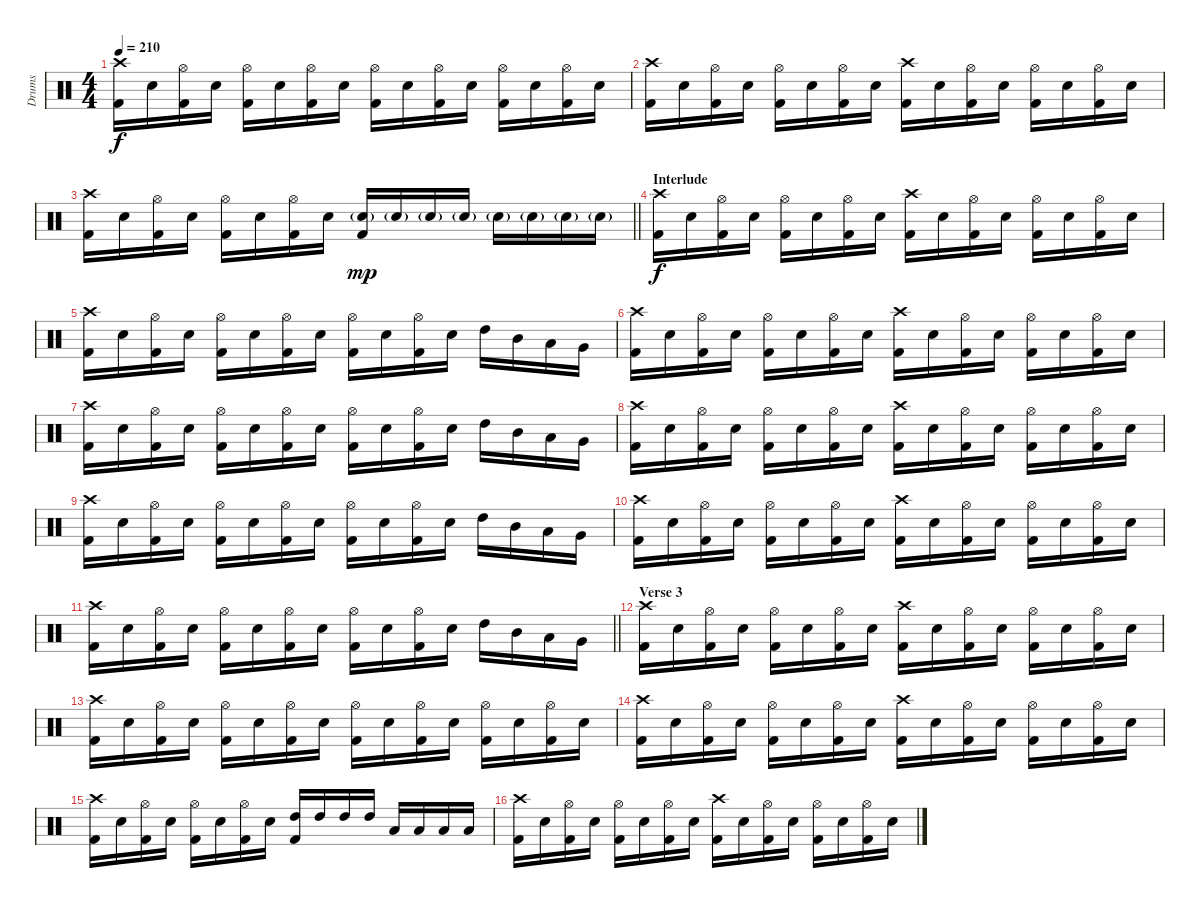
\track ("Drums" "Drums") {instrument percussion}
\staff {score}
\articulation defaults
\ts (4 4)
\tempo 210
\clef neutral
\ks c
("Crash high (hit)" "Kick (hit) 2").16{dy f} "Electric Snare (hit)".16 ("Hi-Hat (open)" "Kick (hit) 2").16 "Electric Snare (hit)".16 ("Hi-Hat (open)" "Kick (hit) 2").16 "Electric Snare (hit)".16 ("Hi-Hat (open)" "Kick (hit) 2").16 "Electric Snare (hit)".16 ("Hi-Hat (open)" "Kick (hit) 2").16 "Electric Snare (hit)".16 ("Hi-Hat (open)" "Kick (hit) 2").16 "Electric Snare (hit)".16 ("Hi-Hat (open)" "Kick (hit) 2").16 "Electric Snare (hit)".16 ("Hi-Hat (open)" "Kick (hit) 2").16 "Electric Snare (hit)".16 |
("Crash high (hit)" "Kick (hit) 2").16 "Electric Snare (hit)".16 ("Hi-Hat (open)" "Kick (hit) 2").16 "Electric Snare (hit)".16 ("Hi-Hat (open)" "Kick (hit) 2").16 "Electric Snare (hit)".16 ("Hi-Hat (open)" "Kick (hit) 2").16 "Electric Snare (hit)".16 ("Crash high (hit)" "Kick (hit) 2").16 "Electric Snare (hit)".16 ("Hi-Hat (open)" "Kick (hit) 2").16 "Electric Snare (hit)".16 ("Hi-Hat (open)" "Kick (hit) 2").16 "Electric Snare (hit)".16 ("Hi-Hat (open)" "Kick (hit) 2").16 "Electric Snare (hit)".16 |
\barLineRight lightlight
("Crash high (hit)" "Kick (hit) 2").16 "Electric Snare (hit)".16 ("Hi-Hat (open)" "Kick (hit) 2").16 "Electric Snare (hit)".16 ("Hi-Hat (open)" "Kick (hit) 2").16 "Electric Snare (hit)".16 ("Hi-Hat (open)" "Kick (hit) 2").16 "Electric Snare (hit)".16 ("Electric Snare (hit)"{g} "Kick (hit) 2").16{dy mp} "Electric Snare (hit)"{g}.16 "Electric Snare (hit)"{g}.16 "Electric Snare (hit)"{g}.16 "Electric Snare (hit)"{g}.16 "Electric Snare (hit)"{g}.16 "Electric Snare (hit)"{g}.16 "Electric Snare (hit)"{g}.16 |
\section ("" "Interlude")
("Crash high (hit)" "Kick (hit) 2").16{dy f} "Electric Snare (hit)".16 ("Hi-Hat (open)" "Kick (hit) 2").16 "Electric Snare (hit)".16 ("Hi-Hat (open)" "Kick (hit) 2").16 "Electric Snare (hit)".16 ("Hi-Hat (open)" "Kick (hit) 2").16 "Electric Snare (hit)".16 ("Crash high (hit)" "Kick (hit) 2").16 "Electric Snare (hit)".16 ("Hi-Hat (open)" "Kick (hit) 2").16 "Electric Snare (hit)".16 ("Hi-Hat (open)" "Kick (hit) 2").16 "Electric Snare (hit)".16 ("Hi-Hat (open)" "Kick (hit) 2").16 "Electric Snare (hit)".16 |
("Crash high (hit)" "Kick (hit) 2").16 "Electric Snare (hit)".16 ("Hi-Hat (open)" "Kick (hit) 2").16 "Electric Snare (hit)".16 ("Hi-Hat (open)" "Kick (hit) 2").16 "Electric Snare (hit)".16 ("Hi-Hat (open)" "Kick (hit) 2").16 "Electric Snare (hit)".16 ("Hi-Hat (open)" "Kick (hit) 2").16 "Electric Snare (hit)".16 ("Hi-Hat (open)" "Kick (hit) 2").16 "Electric Snare (hit)".16 "High Tom (hit)".16 "Mid Tom (hit)".16 "Low Tom (hit)".16 "Very Low Tom (hit)".16 |
("Crash high (hit)" "Kick (hit) 2").16 "Electric Snare (hit)".16 ("Hi-Hat (open)" "Kick (hit) 2").16 "Electric Snare (hit)".16 ("Hi-Hat (open)" "Kick (hit) 2").16 "Electric Snare (hit)".16 ("Hi-Hat (open)" "Kick (hit) 2").16 "Electric Snare (hit)".16 ("Crash high (hit)" "Kick (hit) 2").16 "Electric Snare (hit)".16 ("Hi-Hat (open)" "Kick (hit) 2").16 "Electric Snare (hit)".16 ("Hi-Hat (open)" "Kick (hit) 2").16 "Electric Snare (hit)".16 ("Hi-Hat (open)" "Kick (hit) 2").16 "Electric Snare (hit)".16 |
("Crash high (hit)" "Kick (hit) 2").16 "Electric Snare (hit)".16 ("Hi-Hat (open)" "Kick (hit) 2").16 "Electric Snare (hit)".16 ("Hi-Hat (open)" "Kick (hit) 2").16 "Electric Snare (hit)".16 ("Hi-Hat (open)" "Kick (hit) 2").16 "Electric Snare (hit)".16 ("Hi-Hat (open)" "Kick (hit) 2").16 "Electric Snare (hit)".16 ("Hi-Hat (open)" "Kick (hit) 2").16 "Electric Snare (hit)".16 "High Tom (hit)".16 "Mid Tom (hit)".16 "Low Tom (hit)".16 "Very Low Tom (hit)".16 |
("Crash high (hit)" "Kick (hit) 2").16 "Electric Snare (hit)".16 ("Hi-Hat (open)" "Kick (hit) 2").16 "Electric Snare (hit)".16 ("Hi-Hat (open)" "Kick (hit) 2").16 "Electric Snare (hit)".16 ("Hi-Hat (open)" "Kick (hit) 2").16 "Electric Snare (hit)".16 ("Crash high (hit)" "Kick (hit) 2").16 "Electric Snare (hit)".16 ("Hi-Hat (open)" "Kick (hit) 2").16 "Electric Snare (hit)".16 ("Hi-Hat (open)" "Kick (hit) 2").16 "Electric Snare (hit)".16 ("Hi-Hat (open)" "Kick (hit) 2").16 "Electric Snare (hit)".16 |
("Crash high (hit)" "Kick (hit) 2").16 "Electric Snare (hit)".16 ("Hi-Hat (open)" "Kick (hit) 2").16 "Electric Snare (hit)".16 ("Hi-Hat (open)" "Kick (hit) 2").16 "Electric Snare (hit)".16 ("Hi-Hat (open)" "Kick (hit) 2").16 "Electric Snare (hit)".16 ("Hi-Hat (open)" "Kick (hit) 2").16 "Electric Snare (hit)".16 ("Hi-Hat (open)" "Kick (hit) 2").16 "Electric Snare (hit)".16 "High Tom (hit)".16 "Mid Tom (hit)".16 "Low Tom (hit)".16 "Very Low Tom (hit)".16 |
("Crash high (hit)" "Kick (hit) 2").16 "Electric Snare (hit)".16 ("Hi-Hat (open)" "Kick (hit) 2").16 "Electric Snare (hit)".16 ("Hi-Hat (open)" "Kick (hit) 2").16 "Electric Snare (hit)".16 ("Hi-Hat (open)" "Kick (hit) 2").16 "Electric Snare (hit)".16 ("Crash high (hit)" "Kick (hit) 2").16 "Electric Snare (hit)".16 ("Hi-Hat (open)" "Kick (hit) 2").16 "Electric Snare (hit)".16 ("Hi-Hat (open)" "Kick (hit) 2").16 "Electric Snare (hit)".16 ("Hi-Hat (open)" "Kick (hit) 2").16 "Electric Snare (hit)".16 |
\barLineRight lightlight
("Crash high (hit)" "Kick (hit) 2").16 "Electric Snare (hit)".16 ("Hi-Hat (open)" "Kick (hit) 2").16 "Electric Snare (hit)".16 ("Hi-Hat (open)" "Kick (hit) 2").16 "Electric Snare (hit)".16 ("Hi-Hat (open)" "Kick (hit) 2").16 "Electric Snare (hit)".16 ("Hi-Hat (open)" "Kick (hit) 2").16 "Electric Snare (hit)".16 ("Hi-Hat (open)" "Kick (hit) 2").16 "Electric Snare (hit)".16 "High Tom (hit)".16 "Mid Tom (hit)".16 "Low Tom (hit)".16 "Very Low Tom (hit)".16 |
\section ("" "Verse 3")
("Crash high (hit)" "Kick (hit) 2").16 "Electric Snare (hit)".16 ("Hi-Hat (open)" "Kick (hit) 2").16 "Electric Snare (hit)".16 ("Hi-Hat (open)" "Kick (hit) 2").16 "Electric Snare (hit)".16 ("Hi-Hat (open)" "Kick (hit) 2").16 "Electric Snare (hit)".16 ("Crash high (hit)" "Kick (hit) 2").16 "Electric Snare (hit)".16 ("Hi-Hat (open)" "Kick (hit) 2").16 "Electric Snare (hit)".16 ("Hi-Hat (open)" "Kick (hit) 2").16 "Electric Snare (hit)".16 ("Hi-Hat (open)" "Kick (hit) 2").16 "Electric Snare (hit)".16 |
("Crash high (hit)" "Kick (hit) 2").16 "Electric Snare (hit)".16 ("Hi-Hat (open)" "Kick (hit) 2").16 "Electric Snare (hit)".16 ("Hi-Hat (open)" "Kick (hit) 2").16 "Electric Snare (hit)".16 ("Hi-Hat (open)" "Kick (hit) 2").16 "Electric Snare (hit)".16 ("Hi-Hat (open)" "Kick (hit) 2").16 "Electric Snare (hit)".16 ("Hi-Hat (open)" "Kick (hit) 2").16 "Electric Snare (hit)".16 ("Hi-Hat (open)" "Kick (hit) 2").16 "Electric Snare (hit)".16 ("Hi-Hat (open)" "Kick (hit) 2").16 "Electric Snare (hit)".16 |
("Crash high (hit)" "Kick (hit) 2").16 "Electric Snare (hit)".16 ("Hi-Hat (open)" "Kick (hit) 2").16 "Electric Snare (hit)".16 ("Hi-Hat (open)" "Kick (hit) 2").16 "Electric Snare (hit)".16 ("Hi-Hat (open)" "Kick (hit) 2").16 "Electric Snare (hit)".16 ("Crash high (hit)" "Kick (hit) 2").16 "Electric Snare (hit)".16 ("Hi-Hat (open)" "Kick (hit) 2").16 "Electric Snare (hit)".16 ("Hi-Hat (open)" "Kick (hit) 2").16 "Electric Snare (hit)".16 ("Hi-Hat (open)" "Kick (hit) 2").16 "Electric Snare (hit)".16 |
("Crash high (hit)" "Kick (hit) 2").16 "Electric Snare (hit)".16 ("Hi-Hat (open)" "Kick (hit) 2").16 "Electric Snare (hit)".16 ("Hi-Hat (open)" "Kick (hit) 2").16 "Electric Snare (hit)".16 ("Hi-Hat (open)" "Kick (hit) 2").16 "Electric Snare (hit)".16 ("High Tom (hit)" "Kick (hit) 2").16 "High Tom (hit)".16 "High Tom (hit)".16 "High Tom (hit)".16 "Low Tom (hit)".16 "Low Tom (hit)".16 "Low Tom (hit)".16 "Low Tom (hit)".16 |
("Crash high (hit)" "Kick (hit) 2").16 "Electric Snare (hit)".16 ("Hi-Hat (open)" "Kick (hit) 2").16 "Electric Snare (hit)".16 ("Hi-Hat (open)" "Kick (hit) 2").16 "Electric Snare (hit)".16 ("Hi-Hat (open)" "Kick (hit) 2").16 "Electric Snare (hit)".16 ("Crash high (hit)" "Kick (hit) 2").16 "Electric Snare (hit)".16 ("Hi-Hat (open)" "Kick (hit) 2").16 "Electric Snare (hit)".16 ("Hi-Hat (open)" "Kick (hit) 2").16 "Electric Snare (hit)".16 ("Hi-Hat (open)" "Kick (hit) 2").16 "Electric Snare (hit)".16
